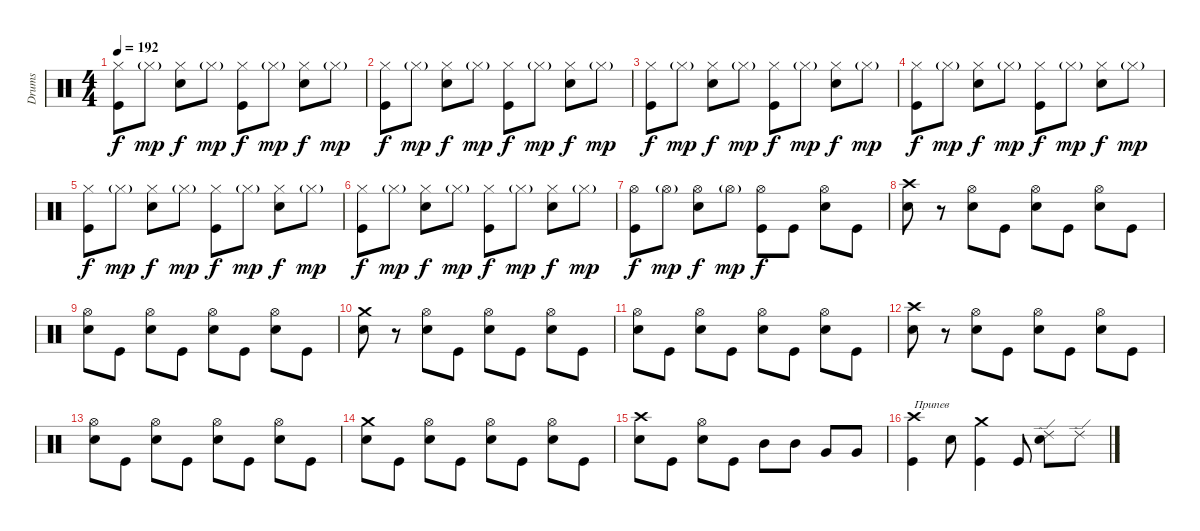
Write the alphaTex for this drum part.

\track ("Drums" "Drums") {instrument percussion}
\staff {score}
\articulation defaults
\ts (4 4)
\tempo 192
\clef neutral
\ks c
("Hi-Hat (closed)" "Kick (hit)").8{dy f} "Hi-Hat (closed)"{g}.8{dy mp} ("Hi-Hat (closed)" "Electric Snare (hit)").8{dy f} "Hi-Hat (closed)"{g}.8{dy mp} ("Hi-Hat (closed)" "Kick (hit)").8{dy f} "Hi-Hat (closed)"{g}.8{dy mp} ("Hi-Hat (closed)" "Electric Snare (hit)").8{dy f} "Hi-Hat (closed)"{g}.8{dy mp} |
("Hi-Hat (closed)" "Kick (hit)").8{dy f} "Hi-Hat (closed)"{g}.8{dy mp} ("Hi-Hat (closed)" "Electric Snare (hit)").8{dy f} "Hi-Hat (closed)"{g}.8{dy mp} ("Hi-Hat (closed)" "Kick (hit)").8{dy f} "Hi-Hat (closed)"{g}.8{dy mp} ("Hi-Hat (closed)" "Electric Snare (hit)").8{dy f} "Hi-Hat (closed)"{g}.8{dy mp} |
("Hi-Hat (closed)" "Kick (hit)").8{dy f} "Hi-Hat (closed)"{g}.8{dy mp} ("Hi-Hat (closed)" "Electric Snare (hit)").8{dy f} "Hi-Hat (closed)"{g}.8{dy mp} ("Hi-Hat (closed)" "Kick (hit)").8{dy f} "Hi-Hat (closed)"{g}.8{dy mp} ("Hi-Hat (closed)" "Electric Snare (hit)").8{dy f} "Hi-Hat (closed)"{g}.8{dy mp} |
("Hi-Hat (closed)" "Kick (hit)").8{dy f} "Hi-Hat (closed)"{g}.8{dy mp} ("Hi-Hat (closed)" "Electric Snare (hit)").8{dy f} "Hi-Hat (closed)"{g}.8{dy mp} ("Hi-Hat (closed)" "Kick (hit)").8{dy f} "Hi-Hat (closed)"{g}.8{dy mp} ("Hi-Hat (closed)" "Electric Snare (hit)").8{dy f} "Hi-Hat (closed)"{g}.8{dy mp} |
("Hi-Hat (closed)" "Kick (hit)").8{dy f} "Hi-Hat (closed)"{g}.8{dy mp} ("Hi-Hat (closed)" "Electric Snare (hit)").8{dy f} "Hi-Hat (closed)"{g}.8{dy mp} ("Hi-Hat (closed)" "Kick (hit)").8{dy f} "Hi-Hat (closed)"{g}.8{dy mp} ("Hi-Hat (closed)" "Electric Snare (hit)").8{dy f} "Hi-Hat (closed)"{g}.8{dy mp} |
("Hi-Hat (closed)" "Kick (hit)").8{dy f} "Hi-Hat (closed)"{g}.8{dy mp} ("Hi-Hat (closed)" "Electric Snare (hit)").8{dy f} "Hi-Hat (closed)"{g}.8{dy mp} ("Hi-Hat (closed)" "Kick (hit)").8{dy f} "Hi-Hat (closed)"{g}.8{dy mp} ("Hi-Hat (closed)" "Electric Snare (hit)").8{dy f} "Hi-Hat (closed)"{g}.8{dy mp} |
("Hi-Hat (open)" "Kick (hit)").8{dy f} "Hi-Hat (open)"{g}.8{dy mp} ("Hi-Hat (open)" "Electric Snare (hit)").8{dy f} "Hi-Hat (open)"{g}.8{dy mp} ("Hi-Hat (open)" "Kick (hit)").8{dy f} "Kick (hit)".8 ("Hi-Hat (open)" "Electric Snare (hit)").8 "Kick (hit)".8 |
("Crash high (hit)" "Electric Snare (hit)").8 r.8 ("Hi-Hat (open)" "Electric Snare (hit)").8 "Kick (hit)".8 ("Hi-Hat (open)" "Electric Snare (hit)").8 "Kick (hit)".8 ("Hi-Hat (open)" "Electric Snare (hit)").8 "Kick (hit)".8 |
("Hi-Hat (open)" "Electric Snare (hit)").8 "Kick (hit)".8 ("Hi-Hat (open)" "Electric Snare (hit)").8 "Kick (hit)".8 ("Hi-Hat (open)" "Electric Snare (hit)").8 "Kick (hit)".8 ("Hi-Hat (open)" "Electric Snare (hit)").8 "Kick (hit)".8 |
("Crash medium (hit)" "Electric Snare (hit)").8 r.8 ("Hi-Hat (open)" "Electric Snare (hit)").8 "Kick (hit)".8 ("Hi-Hat (open)" "Electric Snare (hit)").8 "Kick (hit)".8 ("Hi-Hat (open)" "Electric Snare (hit)").8 "Kick (hit)".8 |
("Hi-Hat (open)" "Electric Snare (hit)").8 "Kick (hit)".8 ("Hi-Hat (open)" "Electric Snare (hit)").8 "Kick (hit)".8 ("Hi-Hat (open)" "Electric Snare (hit)").8 "Kick (hit)".8 ("Hi-Hat (open)" "Electric Snare (hit)").8 "Kick (hit)".8 |
("Crash high (hit)" "Electric Snare (hit)").8 r.8 ("Hi-Hat (open)" "Electric Snare (hit)").8 "Kick (hit)".8 ("Hi-Hat (open)" "Electric Snare (hit)").8 "Kick (hit)".8 ("Hi-Hat (open)" "Electric Snare (hit)").8 "Kick (hit)".8 |
("Hi-Hat (open)" "Electric Snare (hit)").8 "Kick (hit)".8 ("Hi-Hat (open)" "Electric Snare (hit)").8 "Kick (hit)".8 ("Hi-Hat (open)" "Electric Snare (hit)").8 "Kick (hit)".8 ("Hi-Hat (open)" "Electric Snare (hit)").8 "Kick (hit)".8 |
("Crash medium (hit)" "Electric Snare (hit)").8 "Kick (hit)".8 ("Hi-Hat (open)" "Electric Snare (hit)").8 "Kick (hit)".8 ("Hi-Hat (open)" "Electric Snare (hit)").8 "Kick (hit)".8 ("Hi-Hat (open)" "Electric Snare (hit)").8 "Kick (hit)".8 |
("Crash high (hit)" "Electric Snare (hit)").8 "Kick (hit)".8 ("Hi-Hat (open)" "Electric Snare (hit)").8 "Kick (hit)".8 "Mid Tom (hit)".8 "Mid Tom (hit)".8 "Very Low Tom (hit)".8 "Very Low Tom (hit)".8 |
("Crash high (hit)" "Kick (hit)").4{txt "Припев"} "Electric Snare (hit)".8 ("Crash medium (hit)" "Kick (hit)").4 "Kick (hit)".8 ("Ride (edge) 2" "Electric Snare (hit)").8 "Ride (edge) 2".8
